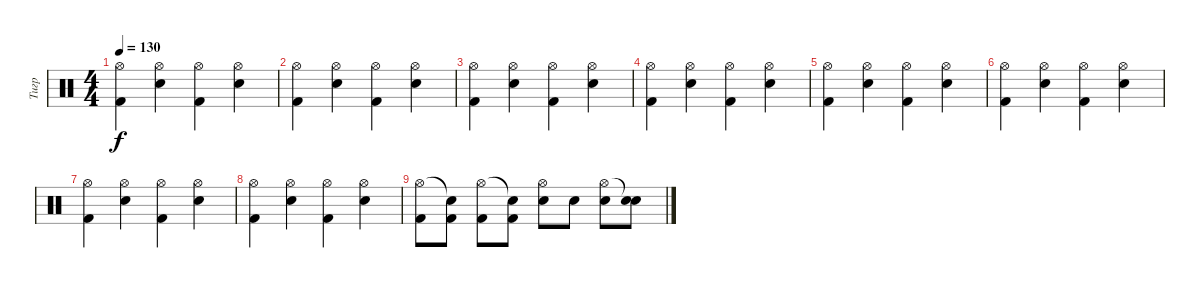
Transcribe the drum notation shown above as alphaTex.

\track ("Тигр" "Тигр") {instrument percussion}
\staff {score}
\articulation defaults
\ts (4 4)
\tempo 130
\clef neutral
\ks c
("Hi-Hat (open)" "Kick (hit) 2").4{dy f} ("Hi-Hat (open)" "Snare (hit) 2").4 ("Hi-Hat (open)" "Kick (hit) 2").4 ("Hi-Hat (open)" "Snare (hit) 2").4 |
("Hi-Hat (open)" "Kick (hit) 2").4 ("Hi-Hat (open)" "Snare (hit) 2").4 ("Hi-Hat (open)" "Kick (hit) 2").4 ("Hi-Hat (open)" "Snare (hit) 2").4 |
("Hi-Hat (open)" "Kick (hit) 2").4 ("Hi-Hat (open)" "Snare (hit) 2").4 ("Hi-Hat (open)" "Kick (hit) 2").4 ("Hi-Hat (open)" "Snare (hit) 2").4 |
("Hi-Hat (open)" "Kick (hit) 2").4 ("Hi-Hat (open)" "Snare (hit) 2").4 ("Hi-Hat (open)" "Kick (hit) 2").4 ("Hi-Hat (open)" "Snare (hit) 2").4 |
("Hi-Hat (open)" "Kick (hit) 2").4 ("Hi-Hat (open)" "Snare (hit) 2").4 ("Hi-Hat (open)" "Kick (hit) 2").4 ("Hi-Hat (open)" "Snare (hit) 2").4 |
("Hi-Hat (open)" "Kick (hit) 2").4 ("Hi-Hat (open)" "Snare (hit) 2").4 ("Hi-Hat (open)" "Kick (hit) 2").4 ("Hi-Hat (open)" "Snare (hit) 2").4 |
("Hi-Hat (open)" "Kick (hit) 2").4 ("Hi-Hat (open)" "Snare (hit) 2").4 ("Hi-Hat (open)" "Kick (hit) 2").4 ("Hi-Hat (open)" "Snare (hit) 2").4 |
("Hi-Hat (open)" "Kick (hit) 2").4 ("Hi-Hat (open)" "Snare (hit) 2").4 ("Hi-Hat (open)" "Kick (hit) 2").4 ("Hi-Hat (open)" "Snare (hit) 2").4 |
("Kick (hit) 2" "Hi-Hat (open)").8 ("Kick (hit) 2" "Snare (hit)"{t}).8 ("Kick (hit) 2" "Hi-Hat (open)").8 ("Kick (hit) 2" "Snare (hit)"{t}).8 ("Snare (hit) 2" "Hi-Hat (open)").8 "Snare (hit) 2".8 ("Snare (hit) 2" "Hi-Hat (open)").8 ("Snare (hit) 2" "Snare (hit)"{t}).8
